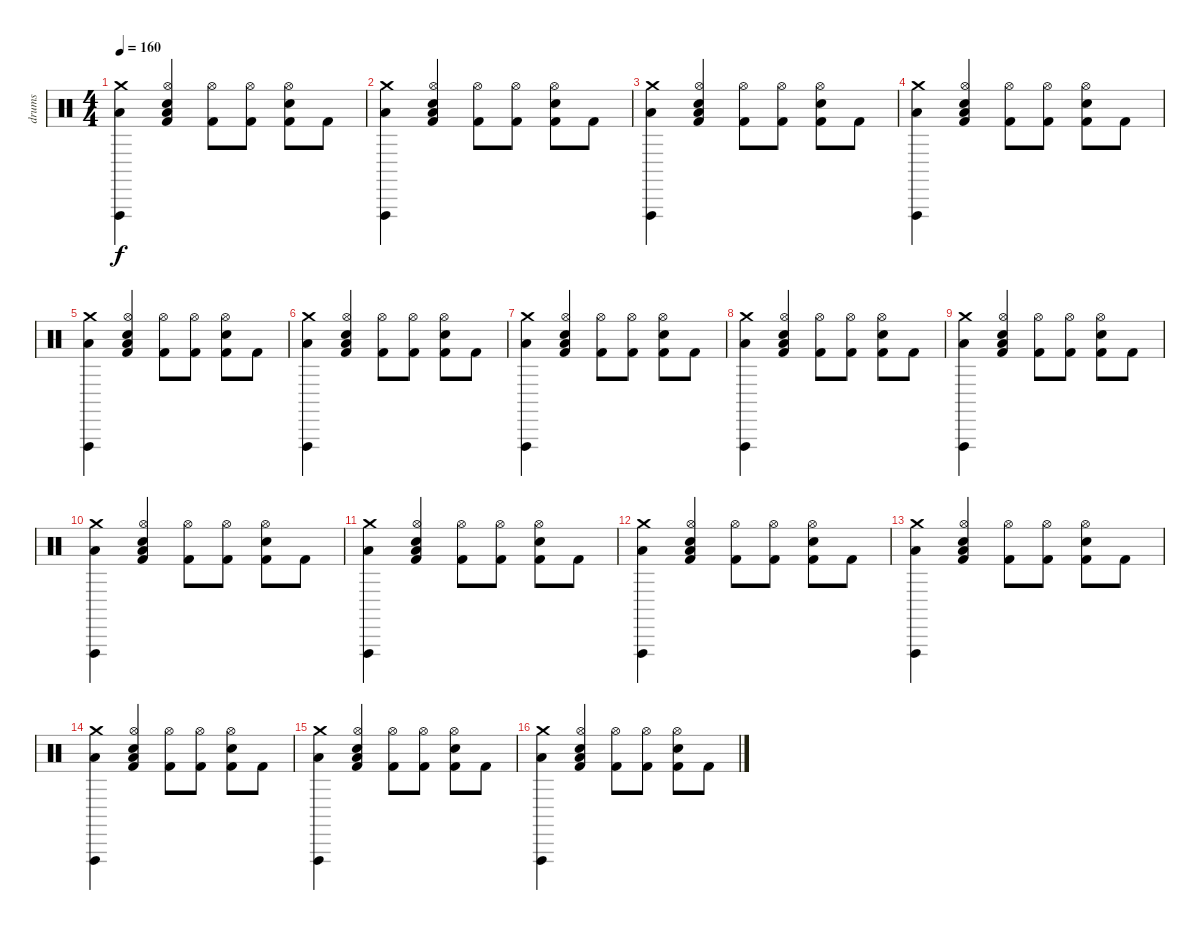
\track ("drums" "drums") {instrument percussion}
\staff {score}
\articulation defaults
\ts (4 4)
\tempo 160
\clef neutral
\ks c
("Crash medium (hit)" "Vibraslap (hit)" "Low Floor Tom (hit)").4{dy f} ("Hi-Hat (open)" "Electric Snare (hit)" "Low Floor Tom (hit)" "Kick (hit) 2").4 ("Hi-Hat (open)" "Kick (hit) 2").8 ("Hi-Hat (open)" "Kick (hit) 2").8 ("Hi-Hat (open)" "Electric Snare (hit)" "Kick (hit) 2").8 "Kick (hit) 2".8 |
("Crash medium (hit)" "Vibraslap (hit)" "Low Floor Tom (hit)").4 ("Hi-Hat (open)" "Electric Snare (hit)" "Low Floor Tom (hit)" "Kick (hit) 2").4 ("Hi-Hat (open)" "Kick (hit) 2").8 ("Hi-Hat (open)" "Kick (hit) 2").8 ("Hi-Hat (open)" "Electric Snare (hit)" "Kick (hit) 2").8 "Kick (hit) 2".8 |
("Crash medium (hit)" "Vibraslap (hit)" "Low Floor Tom (hit)").4 ("Hi-Hat (open)" "Electric Snare (hit)" "Low Floor Tom (hit)" "Kick (hit) 2").4 ("Hi-Hat (open)" "Kick (hit) 2").8 ("Hi-Hat (open)" "Kick (hit) 2").8 ("Hi-Hat (open)" "Electric Snare (hit)" "Kick (hit) 2").8 "Kick (hit) 2".8 |
("Crash medium (hit)" "Vibraslap (hit)" "Low Floor Tom (hit)").4 ("Hi-Hat (open)" "Electric Snare (hit)" "Low Floor Tom (hit)" "Kick (hit) 2").4 ("Hi-Hat (open)" "Kick (hit) 2").8 ("Hi-Hat (open)" "Kick (hit) 2").8 ("Hi-Hat (open)" "Electric Snare (hit)" "Kick (hit) 2").8 "Kick (hit) 2".8 |
("Crash medium (hit)" "Vibraslap (hit)" "Low Floor Tom (hit)").4 ("Hi-Hat (open)" "Electric Snare (hit)" "Low Floor Tom (hit)" "Kick (hit) 2").4 ("Hi-Hat (open)" "Kick (hit) 2").8 ("Hi-Hat (open)" "Kick (hit) 2").8 ("Hi-Hat (open)" "Electric Snare (hit)" "Kick (hit) 2").8 "Kick (hit) 2".8 |
("Crash medium (hit)" "Vibraslap (hit)" "Low Floor Tom (hit)").4 ("Hi-Hat (open)" "Electric Snare (hit)" "Low Floor Tom (hit)" "Kick (hit) 2").4 ("Hi-Hat (open)" "Kick (hit) 2").8 ("Hi-Hat (open)" "Kick (hit) 2").8 ("Hi-Hat (open)" "Electric Snare (hit)" "Kick (hit) 2").8 "Kick (hit) 2".8 |
("Crash medium (hit)" "Vibraslap (hit)" "Low Floor Tom (hit)").4 ("Hi-Hat (open)" "Electric Snare (hit)" "Low Floor Tom (hit)" "Kick (hit) 2").4 ("Hi-Hat (open)" "Kick (hit) 2").8 ("Hi-Hat (open)" "Kick (hit) 2").8 ("Hi-Hat (open)" "Electric Snare (hit)" "Kick (hit) 2").8 "Kick (hit) 2".8 |
("Crash medium (hit)" "Vibraslap (hit)" "Low Floor Tom (hit)").4 ("Hi-Hat (open)" "Electric Snare (hit)" "Low Floor Tom (hit)" "Kick (hit) 2").4 ("Hi-Hat (open)" "Kick (hit) 2").8 ("Hi-Hat (open)" "Kick (hit) 2").8 ("Hi-Hat (open)" "Electric Snare (hit)" "Kick (hit) 2").8 "Kick (hit) 2".8 |
("Crash medium (hit)" "Vibraslap (hit)" "Low Floor Tom (hit)").4 ("Hi-Hat (open)" "Electric Snare (hit)" "Low Floor Tom (hit)" "Kick (hit) 2").4 ("Hi-Hat (open)" "Kick (hit) 2").8 ("Hi-Hat (open)" "Kick (hit) 2").8 ("Hi-Hat (open)" "Electric Snare (hit)" "Kick (hit) 2").8 "Kick (hit) 2".8 |
("Crash medium (hit)" "Vibraslap (hit)" "Low Floor Tom (hit)").4 ("Hi-Hat (open)" "Electric Snare (hit)" "Low Floor Tom (hit)" "Kick (hit) 2").4 ("Hi-Hat (open)" "Kick (hit) 2").8 ("Hi-Hat (open)" "Kick (hit) 2").8 ("Hi-Hat (open)" "Electric Snare (hit)" "Kick (hit) 2").8 "Kick (hit) 2".8 |
("Crash medium (hit)" "Vibraslap (hit)" "Low Floor Tom (hit)").4 ("Hi-Hat (open)" "Electric Snare (hit)" "Low Floor Tom (hit)" "Kick (hit) 2").4 ("Hi-Hat (open)" "Kick (hit) 2").8 ("Hi-Hat (open)" "Kick (hit) 2").8 ("Hi-Hat (open)" "Electric Snare (hit)" "Kick (hit) 2").8 "Kick (hit) 2".8 |
("Crash medium (hit)" "Vibraslap (hit)" "Low Floor Tom (hit)").4 ("Hi-Hat (open)" "Electric Snare (hit)" "Low Floor Tom (hit)" "Kick (hit) 2").4 ("Hi-Hat (open)" "Kick (hit) 2").8 ("Hi-Hat (open)" "Kick (hit) 2").8 ("Hi-Hat (open)" "Electric Snare (hit)" "Kick (hit) 2").8 "Kick (hit) 2".8 |
("Crash medium (hit)" "Vibraslap (hit)" "Low Floor Tom (hit)").4 ("Hi-Hat (open)" "Electric Snare (hit)" "Low Floor Tom (hit)" "Kick (hit) 2").4 ("Hi-Hat (open)" "Kick (hit) 2").8 ("Hi-Hat (open)" "Kick (hit) 2").8 ("Hi-Hat (open)" "Electric Snare (hit)" "Kick (hit) 2").8 "Kick (hit) 2".8 |
("Crash medium (hit)" "Vibraslap (hit)" "Low Floor Tom (hit)").4 ("Hi-Hat (open)" "Electric Snare (hit)" "Low Floor Tom (hit)" "Kick (hit) 2").4 ("Hi-Hat (open)" "Kick (hit) 2").8 ("Hi-Hat (open)" "Kick (hit) 2").8 ("Hi-Hat (open)" "Electric Snare (hit)" "Kick (hit) 2").8 "Kick (hit) 2".8 |
("Crash medium (hit)" "Vibraslap (hit)" "Low Floor Tom (hit)").4 ("Hi-Hat (open)" "Electric Snare (hit)" "Low Floor Tom (hit)" "Kick (hit) 2").4 ("Hi-Hat (open)" "Kick (hit) 2").8 ("Hi-Hat (open)" "Kick (hit) 2").8 ("Hi-Hat (open)" "Electric Snare (hit)" "Kick (hit) 2").8 "Kick (hit) 2".8 |
("Crash medium (hit)" "Vibraslap (hit)" "Low Floor Tom (hit)").4 ("Hi-Hat (open)" "Electric Snare (hit)" "Low Floor Tom (hit)" "Kick (hit) 2").4 ("Hi-Hat (open)" "Kick (hit) 2").8 ("Hi-Hat (open)" "Kick (hit) 2").8 ("Hi-Hat (open)" "Electric Snare (hit)" "Kick (hit) 2").8 "Kick (hit) 2".8
